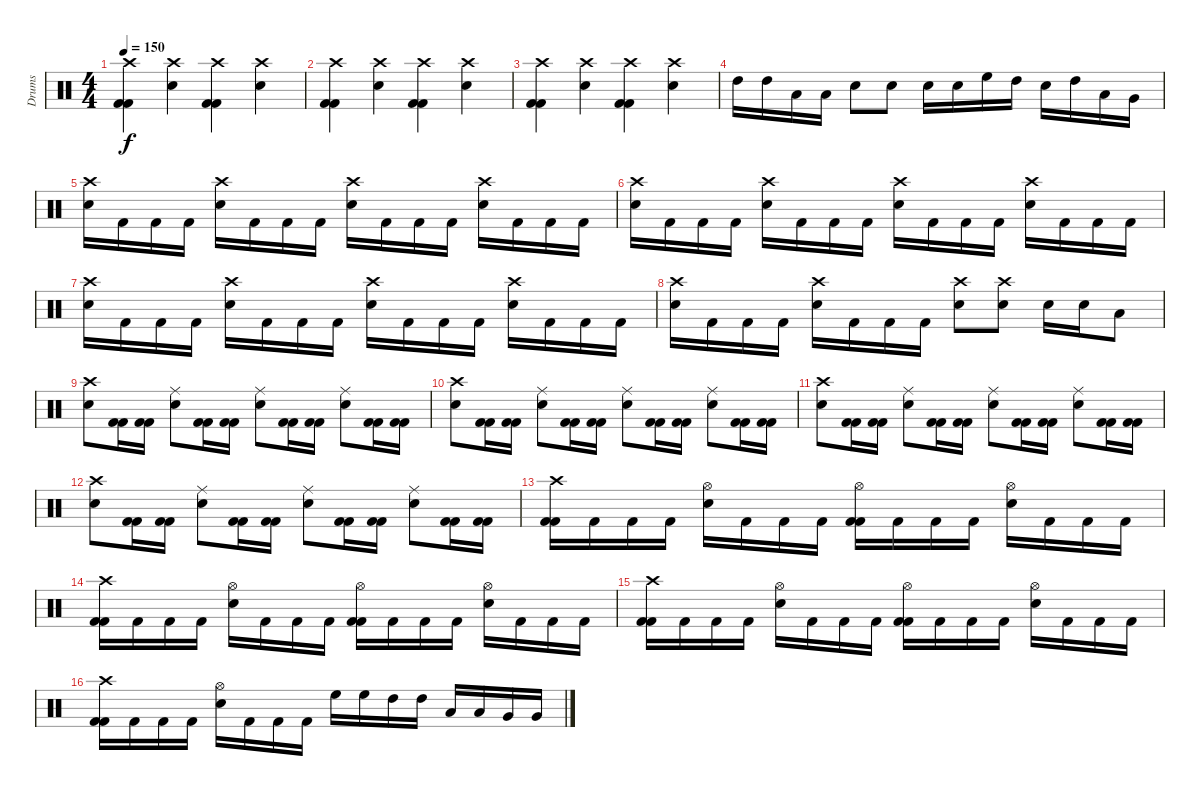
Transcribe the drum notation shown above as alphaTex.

\track ("Drums" "Drums") {instrument percussion}
\staff {score}
\articulation defaults
\ts (4 4)
\tempo 150
\clef neutral
\ks c
("Crash high (hit)" "Kick (hit) 2" "Kick (hit) 2").4{dy f} ("Electric Snare (hit)" "Crash high (hit)").4 ("Crash high (hit)" "Kick (hit) 2" "Kick (hit) 2").4 ("Electric Snare (hit)" "Crash high (hit)").4 |
("Crash high (hit)" "Kick (hit) 2" "Kick (hit) 2").4 ("Electric Snare (hit)" "Crash high (hit)").4 ("Crash high (hit)" "Kick (hit) 2" "Kick (hit) 2").4 ("Electric Snare (hit)" "Crash high (hit)").4 |
("Crash high (hit)" "Kick (hit) 2" "Kick (hit) 2").4 ("Electric Snare (hit)" "Crash high (hit)").4 ("Crash high (hit)" "Kick (hit) 2" "Kick (hit) 2").4 ("Electric Snare (hit)" "Crash high (hit)").4 |
"High Tom (hit)".16 "High Tom (hit)".16 "Low Tom (hit)".16 "Low Tom (hit)".16 "Electric Snare (hit)".8 "Electric Snare (hit)".8 "Electric Snare (hit)".16 "Electric Snare (hit)".16 "High Floor Tom (hit)".16 "High Tom (hit)".16 "Electric Snare (hit)".16 "High Tom (hit)".16 "Low Tom (hit)".16 "Very Low Tom (hit)".16 |
("Crash high (hit)" "Electric Snare (hit)").16 "Kick (hit) 2".16 "Kick (hit) 2".16 "Kick (hit) 2".16 ("Electric Snare (hit)" "Crash high (hit)").16 "Kick (hit) 2".16 "Kick (hit) 2".16 "Kick (hit) 2".16 ("Crash high (hit)" "Electric Snare (hit)").16 "Kick (hit) 2".16 "Kick (hit) 2".16 "Kick (hit) 2".16 ("Electric Snare (hit)" "Crash high (hit)").16 "Kick (hit) 2".16 "Kick (hit) 2".16 "Kick (hit) 2".16 |
("Crash high (hit)" "Electric Snare (hit)").16 "Kick (hit) 2".16 "Kick (hit) 2".16 "Kick (hit) 2".16 ("Electric Snare (hit)" "Crash high (hit)").16 "Kick (hit) 2".16 "Kick (hit) 2".16 "Kick (hit) 2".16 ("Crash high (hit)" "Electric Snare (hit)").16 "Kick (hit) 2".16 "Kick (hit) 2".16 "Kick (hit) 2".16 ("Electric Snare (hit)" "Crash high (hit)").16 "Kick (hit) 2".16 "Kick (hit) 2".16 "Kick (hit) 2".16 |
("Crash high (hit)" "Electric Snare (hit)").16 "Kick (hit) 2".16 "Kick (hit) 2".16 "Kick (hit) 2".16 ("Electric Snare (hit)" "Crash high (hit)").16 "Kick (hit) 2".16 "Kick (hit) 2".16 "Kick (hit) 2".16 ("Crash high (hit)" "Electric Snare (hit)").16 "Kick (hit) 2".16 "Kick (hit) 2".16 "Kick (hit) 2".16 ("Electric Snare (hit)" "Crash high (hit)").16 "Kick (hit) 2".16 "Kick (hit) 2".16 "Kick (hit) 2".16 |
("Crash high (hit)" "Electric Snare (hit)").16 "Kick (hit) 2".16 "Kick (hit) 2".16 "Kick (hit) 2".16 ("Electric Snare (hit)" "Crash high (hit)").16 "Kick (hit) 2".16 "Kick (hit) 2".16 "Kick (hit) 2".16 ("Crash high (hit)" "Electric Snare (hit)").8 ("Crash high (hit)" "Electric Snare (hit)").8 "Electric Snare (hit)".16 "Electric Snare (hit)".16 "Low Tom (hit)".8 |
("Crash high (hit)" "Electric Snare (hit)").8 ("Kick (hit) 2" "Kick (hit) 2").16 ("Kick (hit) 2" "Kick (hit) 2").16 ("Ride (middle)" "Electric Snare (hit)").8 ("Kick (hit) 2" "Kick (hit) 2").16 ("Kick (hit) 2" "Kick (hit) 2").16 ("Electric Snare (hit)" "Ride (middle)").8 ("Kick (hit) 2" "Kick (hit) 2").16 ("Kick (hit) 2" "Kick (hit) 2").16 ("Ride (middle)" "Electric Snare (hit)").8 ("Kick (hit) 2" "Kick (hit) 2").16 ("Kick (hit) 2" "Kick (hit) 2").16 |
("Crash high (hit)" "Electric Snare (hit)").8 ("Kick (hit) 2" "Kick (hit) 2").16 ("Kick (hit) 2" "Kick (hit) 2").16 ("Ride (middle)" "Electric Snare (hit)").8 ("Kick (hit) 2" "Kick (hit) 2").16 ("Kick (hit) 2" "Kick (hit) 2").16 ("Electric Snare (hit)" "Ride (middle)").8 ("Kick (hit) 2" "Kick (hit) 2").16 ("Kick (hit) 2" "Kick (hit) 2").16 ("Ride (middle)" "Electric Snare (hit)").8 ("Kick (hit) 2" "Kick (hit) 2").16 ("Kick (hit) 2" "Kick (hit) 2").16 |
("Crash high (hit)" "Electric Snare (hit)").8 ("Kick (hit) 2" "Kick (hit) 2").16 ("Kick (hit) 2" "Kick (hit) 2").16 ("Ride (middle)" "Electric Snare (hit)").8 ("Kick (hit) 2" "Kick (hit) 2").16 ("Kick (hit) 2" "Kick (hit) 2").16 ("Electric Snare (hit)" "Ride (middle)").8 ("Kick (hit) 2" "Kick (hit) 2").16 ("Kick (hit) 2" "Kick (hit) 2").16 ("Ride (middle)" "Electric Snare (hit)").8 ("Kick (hit) 2" "Kick (hit) 2").16 ("Kick (hit) 2" "Kick (hit) 2").16 |
("Crash high (hit)" "Electric Snare (hit)").8 ("Kick (hit) 2" "Kick (hit) 2").16 ("Kick (hit) 2" "Kick (hit) 2").16 ("Ride (middle)" "Electric Snare (hit)").8 ("Kick (hit) 2" "Kick (hit) 2").16 ("Kick (hit) 2" "Kick (hit) 2").16 ("Electric Snare (hit)" "Ride (middle)").8 ("Kick (hit) 2" "Kick (hit) 2").16 ("Kick (hit) 2" "Kick (hit) 2").16 ("Ride (middle)" "Electric Snare (hit)").8 ("Kick (hit) 2" "Kick (hit) 2").16 ("Kick (hit) 2" "Kick (hit) 2").16 |
("Crash high (hit)" "Kick (hit) 2" "Kick (hit) 2").16 "Kick (hit) 2".16 "Kick (hit) 2".16 "Kick (hit) 2".16 ("Electric Snare (hit)" "Hi-Hat (open)").16 "Kick (hit) 2".16 "Kick (hit) 2".16 "Kick (hit) 2".16 ("Hi-Hat (open)" "Kick (hit) 2" "Kick (hit) 2").16 "Kick (hit) 2".16 "Kick (hit) 2".16 "Kick (hit) 2".16 ("Electric Snare (hit)" "Hi-Hat (open)").16 "Kick (hit) 2".16 "Kick (hit) 2".16 "Kick (hit) 2".16 |
("Crash high (hit)" "Kick (hit) 2" "Kick (hit) 2").16 "Kick (hit) 2".16 "Kick (hit) 2".16 "Kick (hit) 2".16 ("Electric Snare (hit)" "Hi-Hat (open)").16 "Kick (hit) 2".16 "Kick (hit) 2".16 "Kick (hit) 2".16 ("Hi-Hat (open)" "Kick (hit) 2" "Kick (hit) 2").16 "Kick (hit) 2".16 "Kick (hit) 2".16 "Kick (hit) 2".16 ("Electric Snare (hit)" "Hi-Hat (open)").16 "Kick (hit) 2".16 "Kick (hit) 2".16 "Kick (hit) 2".16 |
("Crash high (hit)" "Kick (hit) 2" "Kick (hit) 2").16 "Kick (hit) 2".16 "Kick (hit) 2".16 "Kick (hit) 2".16 ("Electric Snare (hit)" "Hi-Hat (open)").16 "Kick (hit) 2".16 "Kick (hit) 2".16 "Kick (hit) 2".16 ("Hi-Hat (open)" "Kick (hit) 2" "Kick (hit) 2").16 "Kick (hit) 2".16 "Kick (hit) 2".16 "Kick (hit) 2".16 ("Electric Snare (hit)" "Hi-Hat (open)").16 "Kick (hit) 2".16 "Kick (hit) 2".16 "Kick (hit) 2".16 |
("Crash high (hit)" "Kick (hit) 2" "Kick (hit) 2").16 "Kick (hit) 2".16 "Kick (hit) 2".16 "Kick (hit) 2".16 ("Electric Snare (hit)" "Hi-Hat (open)").16 "Kick (hit) 2".16 "Kick (hit) 2".16 "Kick (hit) 2".16 "High Floor Tom (hit)".16 "High Floor Tom (hit)".16 "High Tom (hit)".16 "High Tom (hit)".16 "Low Tom (hit)".16 "Low Tom (hit)".16 "Very Low Tom (hit)".16 "Very Low Tom (hit)".16
